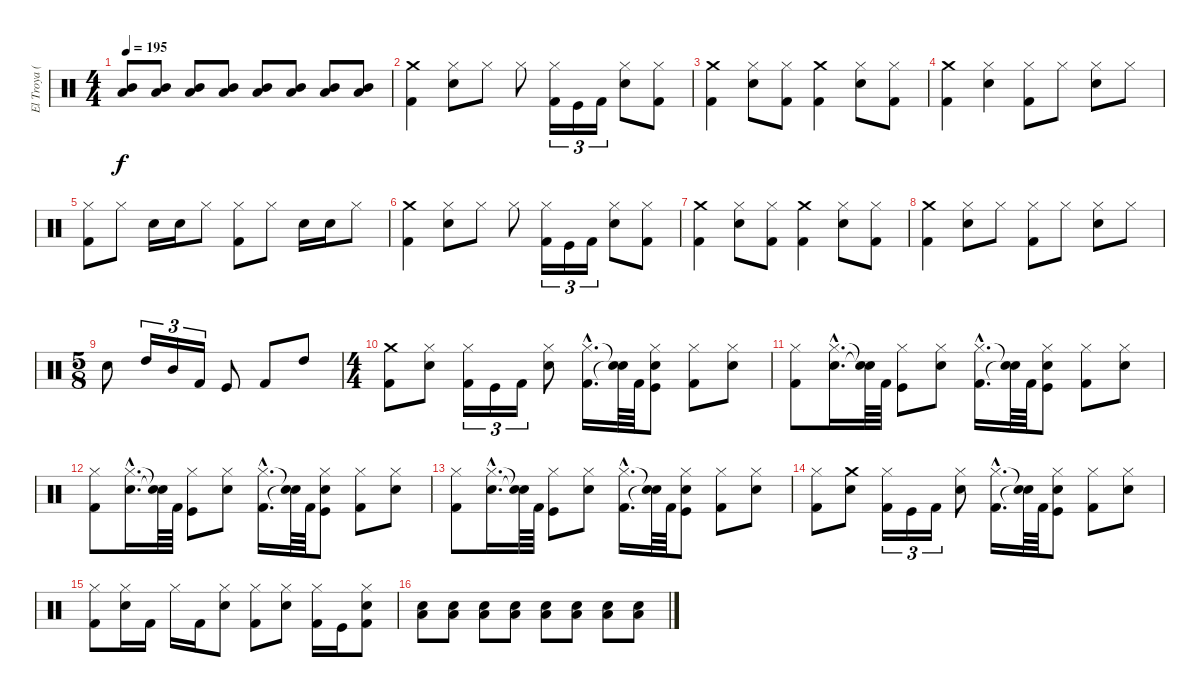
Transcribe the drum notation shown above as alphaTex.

\track ("El Troya (premio)" "El Troya (") {instrument percussion}
\staff {score}
\articulation defaults
\ts (4 4)
\tempo 195
\clef neutral
\ks c
("Mid Tom (hit)" "Low Tom (hit)").8{dy f} ("Mid Tom (hit)" "Low Tom (hit)").8 ("Mid Tom (hit)" "Low Tom (hit)").8 ("Mid Tom (hit)" "Low Tom (hit)").8 ("Mid Tom (hit)" "Low Tom (hit)").8 ("Mid Tom (hit)" "Low Tom (hit)").8 ("Mid Tom (hit)" "Low Tom (hit)").8 ("Mid Tom (hit)" "Low Tom (hit)").8 |
("Kick (hit) 2" "Crash medium (hit)").4 ("Snare (hit) 2" "Hi-Hat (closed)").8 "Hi-Hat (closed)".8 "Hi-Hat (closed)".8 ("Kick (hit) 2" "Hi-Hat (closed)").16{tu (3 2)} "Kick (hit)".16{tu (3 2)} "Kick (hit) 2".16{tu (3 2)} ("Snare (hit) 2" "Hi-Hat (closed)").8 ("Kick (hit) 2" "Hi-Hat (closed)").8 |
("Kick (hit) 2" "Crash medium (hit)").4 ("Hi-Hat (closed)" "Snare (hit) 2").8 ("Kick (hit) 2" "Hi-Hat (closed)").8 ("Crash medium (hit)" "Kick (hit) 2").4 ("Hi-Hat (closed)" "Snare (hit) 2").8 ("Kick (hit) 2" "Hi-Hat (closed)").8 |
("Kick (hit) 2" "Crash medium (hit)").4 ("Hi-Hat (closed)" "Snare (hit) 2").4 ("Hi-Hat (closed)" "Kick (hit) 2").8 "Hi-Hat (closed)".8 ("Snare (hit) 2" "Hi-Hat (closed)").8 "Hi-Hat (closed)".8 |
("Kick (hit) 2" "Hi-Hat (closed)").8 "Hi-Hat (closed)".8 "Snare (hit) 2".16 "Snare (hit) 2".16 "Hi-Hat (closed)".8 ("Kick (hit) 2" "Hi-Hat (closed)").8 "Hi-Hat (closed)".8 "Snare (hit) 2".16 "Snare (hit) 2".16 "Hi-Hat (closed)".8 |
("Kick (hit) 2" "Crash medium (hit)").4 ("Snare (hit) 2" "Hi-Hat (closed)").8 "Hi-Hat (closed)".8 "Hi-Hat (closed)".8 ("Kick (hit) 2" "Hi-Hat (closed)").16{tu (3 2)} "Kick (hit)".16{tu (3 2)} "Kick (hit) 2".16{tu (3 2)} ("Snare (hit) 2" "Hi-Hat (closed)").8 ("Kick (hit) 2" "Hi-Hat (closed)").8 |
("Kick (hit) 2" "Crash medium (hit)").4 ("Hi-Hat (closed)" "Snare (hit) 2").8 ("Kick (hit) 2" "Hi-Hat (closed)").8 ("Crash medium (hit)" "Kick (hit) 2").4 ("Hi-Hat (closed)" "Snare (hit) 2").8 ("Kick (hit) 2" "Hi-Hat (closed)").8 |
("Kick (hit) 2" "Crash medium (hit)").4 ("Hi-Hat (closed)" "Snare (hit) 2").8 "Hi-Hat (closed)".8 ("Hi-Hat (closed)" "Kick (hit) 2").8 "Hi-Hat (closed)".8 ("Snare (hit) 2" "Hi-Hat (closed)").8 "Hi-Hat (closed)".8 |
\ts (5 8)
"Snare (hit) 2".8 "High Tom (hit)".16{tu (3 2)} "Mid Tom (hit)".16{tu (3 2)} "Kick (hit) 2".16{tu (3 2)} "Kick (hit)".8 "Kick (hit) 2".8 "High Tom (hit)".8 |
\ts (4 4)
("Crash medium (hit)" "Kick (hit) 2").8 ("Snare (hit) 2" "Hi-Hat (closed)").8 ("Kick (hit) 2" "Hi-Hat (closed)").16{tu (3 2)} "Kick (hit)".16{tu (3 2)} "Kick (hit) 2".16{tu (3 2)} ("Snare (hit) 2" "Hi-Hat (closed)").8 ("Kick (hit) 2"{hac} "Hi-Hat (closed)"{hac}).16{d} ("Snare (hit)"{t} "Snare (hit)"{t}).64 "Kick (hit) 2".64 ("Kick (hit)" "Snare (hit) 2" "Hi-Hat (closed)").8 ("Kick (hit) 2" "Hi-Hat (closed)").8 ("Snare (hit) 2" "Hi-Hat (closed)").8 |
("Kick (hit) 2" "Hi-Hat (closed)").8 ("Snare (hit) 2"{hac} "Hi-Hat (closed)"{hac}).16{d} ("Snare (hit)"{t} "Snare (hit)"{t}).64 "Kick (hit) 2".64 ("Kick (hit)" "Hi-Hat (closed)").8 ("Snare (hit) 2" "Hi-Hat (closed)").8 ("Kick (hit) 2"{hac} "Hi-Hat (closed)"{hac}).16{d} ("Snare (hit)"{t} "Snare (hit)"{t}).64 "Kick (hit) 2".64 ("Kick (hit)" "Snare (hit) 2" "Hi-Hat (closed)").8 ("Kick (hit) 2" "Hi-Hat (closed)").8 ("Snare (hit) 2" "Hi-Hat (closed)").8 |
("Kick (hit) 2" "Hi-Hat (closed)").8 ("Snare (hit) 2"{hac} "Hi-Hat (closed)"{hac}).16{d} ("Snare (hit)"{t} "Snare (hit)"{t}).64 "Kick (hit) 2".64 ("Kick (hit)" "Hi-Hat (closed)").8 ("Snare (hit) 2" "Hi-Hat (closed)").8 ("Kick (hit) 2"{hac} "Hi-Hat (closed)"{hac}).16{d} ("Snare (hit)"{t} "Snare (hit)"{t}).64 "Kick (hit) 2".64 ("Kick (hit)" "Snare (hit) 2" "Hi-Hat (closed)").8 ("Kick (hit) 2" "Hi-Hat (closed)").8 ("Snare (hit) 2" "Hi-Hat (closed)").8 |
("Kick (hit) 2" "Hi-Hat (closed)").8 ("Snare (hit) 2"{hac} "Hi-Hat (closed)"{hac}).16{d} ("Snare (hit)"{t} "Snare (hit)"{t}).64 "Kick (hit) 2".64 ("Kick (hit)" "Hi-Hat (closed)").8 ("Snare (hit) 2" "Hi-Hat (closed)").8 ("Kick (hit) 2"{hac} "Hi-Hat (closed)"{hac}).16{d} ("Snare (hit)"{t} "Snare (hit)"{t}).64 "Kick (hit) 2".64 ("Kick (hit)" "Snare (hit) 2" "Hi-Hat (closed)").8 ("Kick (hit) 2" "Hi-Hat (closed)").8 ("Snare (hit) 2" "Hi-Hat (closed)").8 |
("Hi-Hat (closed)" "Kick (hit) 2").8 ("Crash medium (hit)" "Snare (hit) 2").8 ("Kick (hit) 2" "Hi-Hat (closed)").16{tu (3 2)} "Kick (hit)".16{tu (3 2)} "Kick (hit) 2".16{tu (3 2)} ("Snare (hit) 2" "Hi-Hat (closed)").8 ("Kick (hit) 2"{hac} "Hi-Hat (closed)"{hac}).16{d} ("Snare (hit)"{t} "Snare (hit)"{t}).64 "Kick (hit) 2".64 ("Kick (hit)" "Snare (hit) 2" "Hi-Hat (closed)").8 ("Kick (hit) 2" "Hi-Hat (closed)").8 ("Snare (hit) 2" "Hi-Hat (closed)").8 |
("Hi-Hat (closed)" "Kick (hit) 2").8 ("Snare (hit) 2" "Hi-Hat (closed)").16 "Kick (hit) 2".16 "Hi-Hat (closed)".16 "Kick (hit) 2".16 ("Snare (hit) 2" "Hi-Hat (closed)").8 ("Hi-Hat (closed)" "Kick (hit) 2").8 ("Snare (hit) 2" "Hi-Hat (closed)").8 ("Hi-Hat (closed)" "Kick (hit) 2").16 "Kick (hit)".16 ("Kick (hit) 2" "Snare (hit) 2" "Hi-Hat (closed)").8 |
("Snare (hit) 2" "Low Tom (hit)").8 ("Snare (hit) 2" "Low Tom (hit)").8 ("Snare (hit) 2" "Low Tom (hit)").8 ("Snare (hit) 2" "Low Tom (hit)").8 ("Snare (hit) 2" "Low Tom (hit)").8 ("Snare (hit) 2" "Low Tom (hit)").8 ("Snare (hit) 2" "Low Tom (hit)").8 ("Snare (hit) 2" "Low Tom (hit)").8
